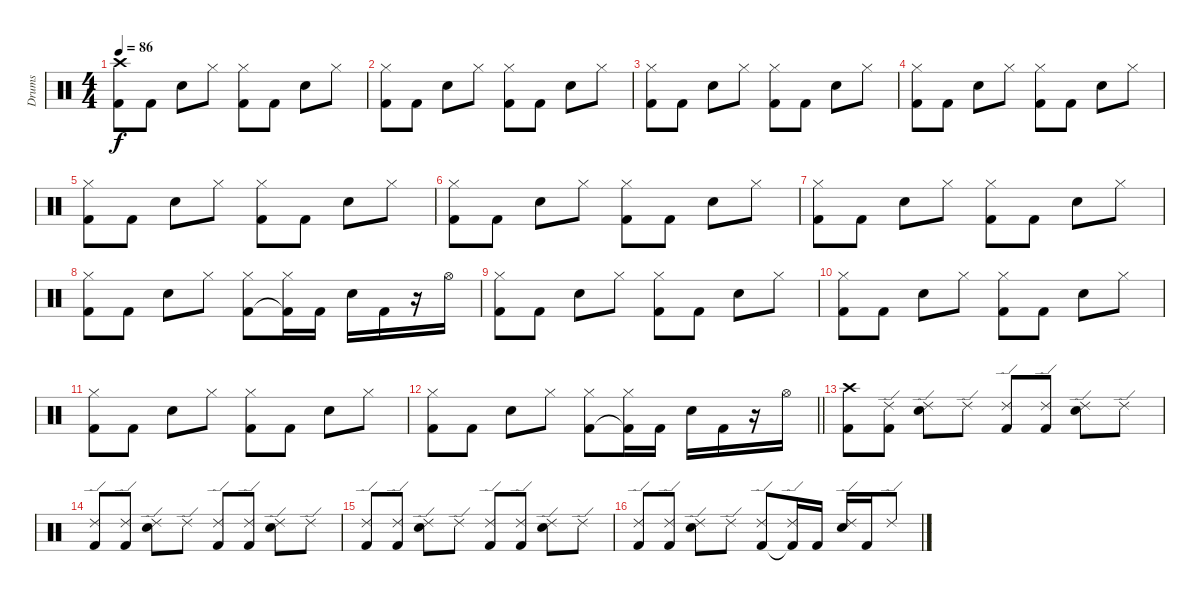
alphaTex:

\track ("Drums" "Drums") {instrument percussion}
\staff {score}
\articulation defaults
\ts (4 4)
\tempo 86
\clef neutral
\ks aminor
("Crash high (hit)" "Kick (hit) 2").8{dy f} "Kick (hit) 2".8 "Snare (hit) 2".8 "Hi-Hat (closed)".8 ("Hi-Hat (closed)" "Kick (hit) 2").8 "Kick (hit) 2".8 "Snare (hit) 2".8 "Hi-Hat (closed)".8 |
("Hi-Hat (closed)" "Kick (hit) 2").8 "Kick (hit) 2".8 "Snare (hit) 2".8 "Hi-Hat (closed)".8 ("Hi-Hat (closed)" "Kick (hit) 2").8 "Kick (hit) 2".8 "Snare (hit) 2".8 "Hi-Hat (closed)".8 |
("Hi-Hat (closed)" "Kick (hit) 2").8 "Kick (hit) 2".8 "Snare (hit) 2".8 "Hi-Hat (closed)".8 ("Hi-Hat (closed)" "Kick (hit) 2").8 "Kick (hit) 2".8 "Snare (hit) 2".8 "Hi-Hat (closed)".8 |
("Hi-Hat (closed)" "Kick (hit) 2").8 "Kick (hit) 2".8 "Snare (hit) 2".8 "Hi-Hat (closed)".8 ("Hi-Hat (closed)" "Kick (hit) 2").8 "Kick (hit) 2".8 "Snare (hit) 2".8 "Hi-Hat (closed)".8 |
("Hi-Hat (closed)" "Kick (hit) 2").8 "Kick (hit) 2".8 "Snare (hit) 2".8 "Hi-Hat (closed)".8 ("Hi-Hat (closed)" "Kick (hit) 2").8 "Kick (hit) 2".8 "Snare (hit) 2".8 "Hi-Hat (closed)".8 |
("Hi-Hat (closed)" "Kick (hit) 2").8 "Kick (hit) 2".8 "Snare (hit) 2".8 "Hi-Hat (closed)".8 ("Hi-Hat (closed)" "Kick (hit) 2").8 "Kick (hit) 2".8 "Snare (hit) 2".8 "Hi-Hat (closed)".8 |
("Hi-Hat (closed)" "Kick (hit) 2").8 "Kick (hit) 2".8 "Snare (hit) 2".8 "Hi-Hat (closed)".8 ("Hi-Hat (closed)" "Kick (hit) 2").8 "Kick (hit) 2".8 "Snare (hit) 2".8 "Hi-Hat (closed)".8 |
("Hi-Hat (closed)" "Kick (hit) 2").8 "Kick (hit) 2".8 "Snare (hit) 2".8 "Hi-Hat (closed)".8 ("Hi-Hat (closed)" "Kick (hit) 2").8 ("Hi-Hat (closed)" "Kick (hit) 2"{t}).16 "Kick (hit) 2".16 "Snare (hit) 2".16 "Kick (hit) 2".16 r.16 "Hi-Hat (open)".16 |
("Hi-Hat (closed)" "Kick (hit) 2").8 "Kick (hit) 2".8 "Snare (hit) 2".8 "Hi-Hat (closed)".8 ("Hi-Hat (closed)" "Kick (hit) 2").8 "Kick (hit) 2".8 "Snare (hit) 2".8 "Hi-Hat (closed)".8 |
("Hi-Hat (closed)" "Kick (hit) 2").8 "Kick (hit) 2".8 "Snare (hit) 2".8 "Hi-Hat (closed)".8 ("Hi-Hat (closed)" "Kick (hit) 2").8 "Kick (hit) 2".8 "Snare (hit) 2".8 "Hi-Hat (closed)".8 |
("Hi-Hat (closed)" "Kick (hit) 2").8 "Kick (hit) 2".8 "Snare (hit) 2".8 "Hi-Hat (closed)".8 ("Hi-Hat (closed)" "Kick (hit) 2").8 "Kick (hit) 2".8 "Snare (hit) 2".8 "Hi-Hat (closed)".8 |
\barLineRight lightlight
("Hi-Hat (closed)" "Kick (hit) 2").8 "Kick (hit) 2".8 "Snare (hit) 2".8 "Hi-Hat (closed)".8 ("Hi-Hat (closed)" "Kick (hit) 2").8 ("Hi-Hat (closed)" "Kick (hit) 2"{t}).16 "Kick (hit) 2".16 "Snare (hit) 2".16 "Kick (hit) 2".16 r.16 "Hi-Hat (open)".16 |
("Crash high (hit)" "Kick (hit) 2").8 ("Ride (edge) 2" "Kick (hit) 2").8 ("Ride (edge) 2" "Snare (hit) 2").8 "Ride (edge) 2".8 ("Ride (edge) 2" "Kick (hit) 2").8 ("Ride (edge) 2" "Kick (hit) 2").8 ("Ride (edge) 2" "Snare (hit) 2").8 "Ride (edge) 2".8 |
("Ride (edge) 2" "Kick (hit) 2").8 ("Ride (edge) 2" "Kick (hit) 2").8 ("Ride (edge) 2" "Snare (hit) 2").8 "Ride (edge) 2".8 ("Ride (edge) 2" "Kick (hit) 2").8 ("Ride (edge) 2" "Kick (hit) 2").8 ("Ride (edge) 2" "Snare (hit) 2").8 "Ride (edge) 2".8 |
("Ride (edge) 2" "Kick (hit) 2").8 ("Ride (edge) 2" "Kick (hit) 2").8 ("Ride (edge) 2" "Snare (hit) 2").8 "Ride (edge) 2".8 ("Ride (edge) 2" "Kick (hit) 2").8 ("Ride (edge) 2" "Kick (hit) 2").8 ("Ride (edge) 2" "Snare (hit) 2").8 "Ride (edge) 2".8 |
("Ride (edge) 2" "Kick (hit) 2").8 ("Ride (edge) 2" "Kick (hit) 2").8 ("Ride (edge) 2" "Snare (hit) 2").8 "Ride (edge) 2".8 ("Ride (edge) 2" "Kick (hit) 2").8 ("Ride (edge) 2" "Kick (hit) 2"{t}).16 "Kick (hit) 2".16 ("Ride (edge) 2" "Snare (hit) 2").16 "Kick (hit) 2".16 "Ride (edge) 2".8
